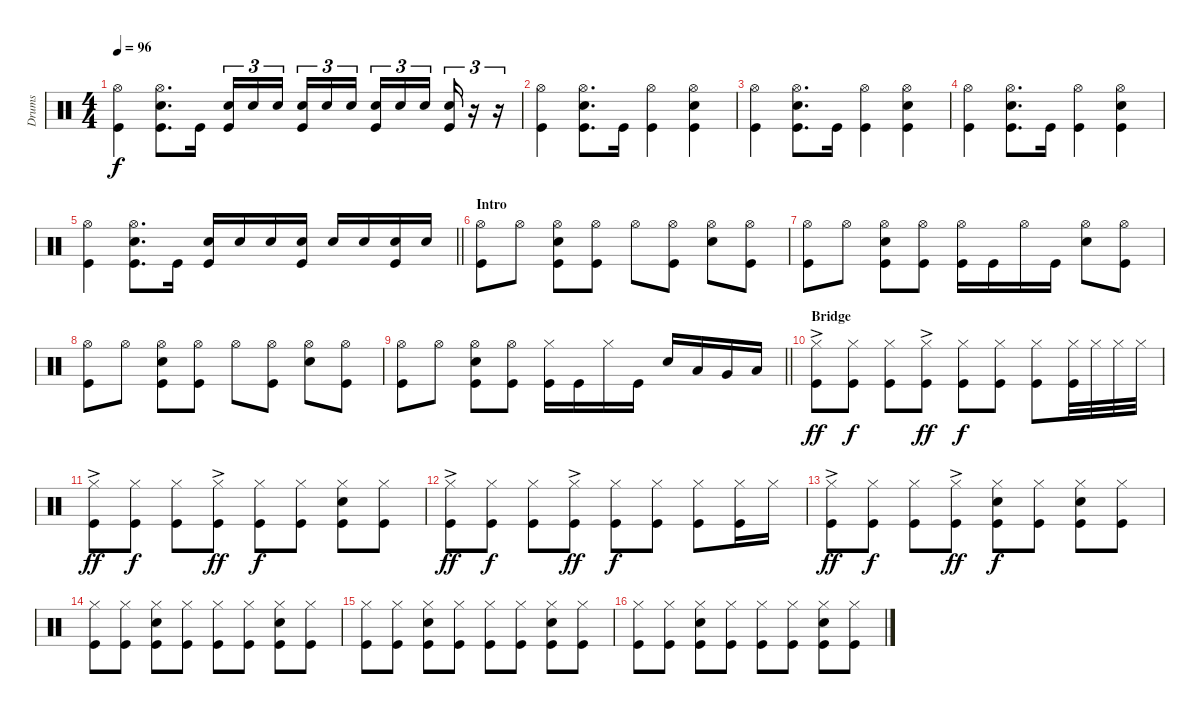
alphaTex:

\track ("Drums" "Drums") {instrument percussion}
\staff {score}
\articulation defaults
\ts (4 4)
\tempo 96
\clef neutral
\ks c
("Hi-Hat (open)" "Kick (hit)").4{dy f} ("Snare (hit) 2" "Hi-Hat (open)" "Kick (hit)").8{d} "Kick (hit)".16 ("Snare (hit) 2" "Kick (hit)").16{tu (3 2)} "Snare (hit) 2".16{tu (3 2)} "Snare (hit) 2".16{tu (3 2) beam splitsecondary} ("Snare (hit) 2" "Kick (hit)").16{tu (3 2)} "Snare (hit) 2".16{tu (3 2)} "Snare (hit) 2".16{tu (3 2)} ("Snare (hit) 2" "Kick (hit)").16{tu (3 2)} "Snare (hit) 2".16{tu (3 2)} "Snare (hit) 2".16{tu (3 2) beam splitsecondary} ("Snare (hit) 2" "Kick (hit)").16{tu (3 2)} r.16{tu (3 2)} r.16{tu (3 2)} |
("Hi-Hat (open)" "Kick (hit)").4 ("Snare (hit) 2" "Hi-Hat (open)" "Kick (hit)").8{d} "Kick (hit)".16 ("Hi-Hat (open)" "Kick (hit)").4 ("Snare (hit) 2" "Hi-Hat (open)" "Kick (hit)").4 |
("Hi-Hat (open)" "Kick (hit)").4 ("Snare (hit) 2" "Hi-Hat (open)" "Kick (hit)").8{d} "Kick (hit)".16 ("Hi-Hat (open)" "Kick (hit)").4 ("Snare (hit) 2" "Hi-Hat (open)" "Kick (hit)").4 |
("Hi-Hat (open)" "Kick (hit)").4 ("Snare (hit) 2" "Hi-Hat (open)" "Kick (hit)").8{d} "Kick (hit)".16 ("Hi-Hat (open)" "Kick (hit)").4 ("Snare (hit) 2" "Hi-Hat (open)" "Kick (hit)").4 |
\barLineRight lightlight
("Hi-Hat (open)" "Kick (hit)").4 ("Snare (hit) 2" "Hi-Hat (open)" "Kick (hit)").8{d} "Kick (hit)".16 ("Snare (hit) 2" "Kick (hit)").16 "Snare (hit) 2".16 "Snare (hit) 2".16 ("Snare (hit) 2" "Kick (hit)").16 "Snare (hit) 2".16 "Snare (hit) 2".16 ("Snare (hit) 2" "Kick (hit)").16 "Snare (hit) 2".16 |
\section ("" "Intro")
("Hi-Hat (open)" "Kick (hit)").8 "Hi-Hat (open)".8 ("Snare (hit) 2" "Hi-Hat (open)" "Kick (hit)").8 ("Hi-Hat (open)" "Kick (hit)").8 "Hi-Hat (open)".8 ("Hi-Hat (open)" "Kick (hit)").8 ("Snare (hit) 2" "Hi-Hat (open)").8 ("Hi-Hat (open)" "Kick (hit)").8 |
("Hi-Hat (open)" "Kick (hit)").8 "Hi-Hat (open)".8 ("Snare (hit) 2" "Hi-Hat (open)" "Kick (hit)").8 ("Hi-Hat (open)" "Kick (hit)").8 ("Hi-Hat (open)" "Kick (hit)").16 "Kick (hit)".16 "Hi-Hat (open)".16 "Kick (hit)".16 ("Snare (hit) 2" "Hi-Hat (open)").8 ("Hi-Hat (open)" "Kick (hit)").8 |
("Hi-Hat (open)" "Kick (hit)").8 "Hi-Hat (open)".8 ("Snare (hit) 2" "Hi-Hat (open)" "Kick (hit)").8 ("Hi-Hat (open)" "Kick (hit)").8 "Hi-Hat (open)".8 ("Hi-Hat (open)" "Kick (hit)").8 ("Snare (hit) 2" "Hi-Hat (open)").8 ("Hi-Hat (open)" "Kick (hit)").8 |
\barLineRight lightlight
("Hi-Hat (open)" "Kick (hit)").8 "Hi-Hat (open)".8 ("Snare (hit) 2" "Hi-Hat (open)" "Kick (hit)").8 ("Hi-Hat (open)" "Kick (hit)").8 ("Hi-Hat (closed)" "Kick (hit)").16 "Kick (hit)".16 "Hi-Hat (closed)".16 "Kick (hit)".16 "Snare (hit) 2".16 "Low Tom (hit)".16 "Very Low Tom (hit)".16 "Low Floor Tom (hit)".16 |
\section ("" "Bridge")
("Hi-Hat (closed)"{ac} "Kick (hit)"{ac}).8{dy ff} ("Hi-Hat (closed)" "Kick (hit)").8{dy f} ("Hi-Hat (closed)" "Kick (hit)").8 ("Hi-Hat (closed)"{ac} "Kick (hit)"{ac}).8{dy ff} ("Hi-Hat (closed)" "Kick (hit)").8{dy f} ("Hi-Hat (closed)" "Kick (hit)").8 ("Hi-Hat (closed)" "Kick (hit)").8 ("Hi-Hat (closed)" "Kick (hit)").32 "Hi-Hat (closed)".32 "Hi-Hat (closed)".32 "Hi-Hat (closed)".32 |
("Hi-Hat (closed)"{ac} "Kick (hit)"{ac}).8{dy ff} ("Hi-Hat (closed)" "Kick (hit)").8{dy f} ("Hi-Hat (closed)" "Kick (hit)").8 ("Hi-Hat (closed)"{ac} "Kick (hit)"{ac}).8{dy ff} ("Hi-Hat (closed)" "Kick (hit)").8{dy f} ("Hi-Hat (closed)" "Kick (hit)").8 ("Snare (hit) 2" "Hi-Hat (closed)" "Kick (hit)").8 ("Hi-Hat (closed)" "Kick (hit)").8 |
("Hi-Hat (closed)"{ac} "Kick (hit)"{ac}).8{dy ff} ("Hi-Hat (closed)" "Kick (hit)").8{dy f} ("Hi-Hat (closed)" "Kick (hit)").8 ("Hi-Hat (closed)"{ac} "Kick (hit)"{ac}).8{dy ff} ("Hi-Hat (closed)" "Kick (hit)").8{dy f} ("Hi-Hat (closed)" "Kick (hit)").8 ("Hi-Hat (closed)" "Kick (hit)").8 ("Hi-Hat (closed)" "Kick (hit)").16 "Hi-Hat (closed)".16 |
("Hi-Hat (closed)"{ac} "Kick (hit)"{ac}).8{dy ff} ("Hi-Hat (closed)" "Kick (hit)").8{dy f} ("Hi-Hat (closed)" "Kick (hit)").8 ("Hi-Hat (closed)"{ac} "Kick (hit)"{ac}).8{dy ff} ("Snare (hit) 2" "Hi-Hat (closed)" "Kick (hit)").8{dy f} ("Hi-Hat (closed)" "Kick (hit)").8 ("Snare (hit) 2" "Hi-Hat (closed)" "Kick (hit)").8 ("Hi-Hat (closed)" "Kick (hit)").8 |
("Hi-Hat (closed)" "Kick (hit)").8 ("Hi-Hat (closed)" "Kick (hit)").8 ("Snare (hit) 2" "Hi-Hat (closed)" "Kick (hit)").8 ("Hi-Hat (closed)" "Kick (hit)").8 ("Hi-Hat (closed)" "Kick (hit)").8 ("Hi-Hat (closed)" "Kick (hit)").8 ("Snare (hit) 2" "Hi-Hat (closed)" "Kick (hit)").8 ("Hi-Hat (closed)" "Kick (hit)").8 |
("Hi-Hat (closed)" "Kick (hit)").8 ("Hi-Hat (closed)" "Kick (hit)").8 ("Snare (hit) 2" "Hi-Hat (closed)" "Kick (hit)").8 ("Hi-Hat (closed)" "Kick (hit)").8 ("Hi-Hat (closed)" "Kick (hit)").8 ("Hi-Hat (closed)" "Kick (hit)").8 ("Snare (hit) 2" "Hi-Hat (closed)" "Kick (hit)").8 ("Hi-Hat (closed)" "Kick (hit)").8 |
("Hi-Hat (closed)" "Kick (hit)").8 ("Hi-Hat (closed)" "Kick (hit)").8 ("Snare (hit) 2" "Hi-Hat (closed)" "Kick (hit)").8 ("Hi-Hat (closed)" "Kick (hit)").8 ("Hi-Hat (closed)" "Kick (hit)").8 ("Hi-Hat (closed)" "Kick (hit)").8 ("Snare (hit) 2" "Hi-Hat (closed)" "Kick (hit)").8 ("Hi-Hat (closed)" "Kick (hit)").8
